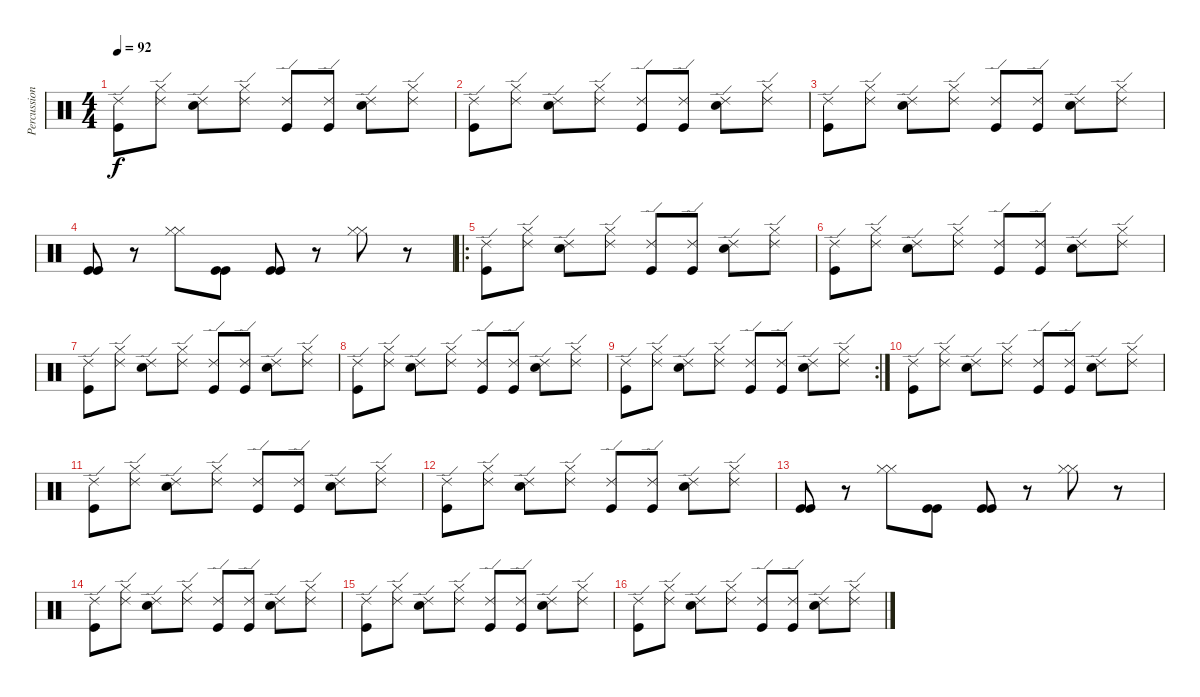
\track ("Percussion" "Percussion") {instrument percussion}
\staff {score}
\articulation defaults
\ts (4 4)
\tempo 92
\clef neutral
\ks c
("Kick (hit)" "Ride (edge) 2").8{dy f} ("Hi-Hat (closed)" "Ride (edge) 2").8 ("Snare (hit) 2" "Ride (edge) 2").8 ("Hi-Hat (closed)" "Ride (edge) 2").8 ("Kick (hit)" "Ride (edge) 2").8 ("Kick (hit)" "Ride (edge) 2").8 ("Snare (hit) 2" "Ride (edge) 2").8 ("Hi-Hat (closed)" "Ride (edge) 2").8 |
("Kick (hit)" "Ride (edge) 2").8 ("Hi-Hat (closed)" "Ride (edge) 2").8 ("Snare (hit) 2" "Ride (edge) 2").8 ("Hi-Hat (closed)" "Ride (edge) 2").8 ("Kick (hit)" "Ride (edge) 2").8 ("Kick (hit)" "Ride (edge) 2").8 ("Snare (hit) 2" "Ride (edge) 2").8 ("Hi-Hat (closed)" "Ride (edge) 2").8 |
("Kick (hit)" "Ride (edge) 2").8 ("Hi-Hat (closed)" "Ride (edge) 2").8 ("Snare (hit) 2" "Ride (edge) 2").8 ("Hi-Hat (closed)" "Ride (edge) 2").8 ("Kick (hit)" "Ride (edge) 2").8 ("Kick (hit)" "Ride (edge) 2").8 ("Snare (hit) 2" "Ride (edge) 2").8 ("Hi-Hat (closed)" "Ride (edge) 2").8 |
("Kick (hit)" "Kick (hit)").8 r.8 ("Hi-Hat (closed)" "Hi-Hat (closed)").8 ("Kick (hit)" "Kick (hit)").8 ("Kick (hit)" "Kick (hit)").8 r.8 ("Hi-Hat (closed)" "Hi-Hat (closed)").8 r.8 |
\ro
("Kick (hit)" "Ride (edge) 2").8 ("Hi-Hat (closed)" "Ride (edge) 2").8 ("Snare (hit) 2" "Ride (edge) 2").8 ("Hi-Hat (closed)" "Ride (edge) 2").8 ("Kick (hit)" "Ride (edge) 2").8 ("Kick (hit)" "Ride (edge) 2").8 ("Snare (hit) 2" "Ride (edge) 2").8 ("Hi-Hat (closed)" "Ride (edge) 2").8 |
("Kick (hit)" "Ride (edge) 2").8 ("Hi-Hat (closed)" "Ride (edge) 2").8 ("Snare (hit) 2" "Ride (edge) 2").8 ("Hi-Hat (closed)" "Ride (edge) 2").8 ("Kick (hit)" "Ride (edge) 2").8 ("Kick (hit)" "Ride (edge) 2").8 ("Snare (hit) 2" "Ride (edge) 2").8 ("Hi-Hat (closed)" "Ride (edge) 2").8 |
("Kick (hit)" "Ride (edge) 2").8 ("Hi-Hat (closed)" "Ride (edge) 2").8 ("Snare (hit) 2" "Ride (edge) 2").8 ("Hi-Hat (closed)" "Ride (edge) 2").8 ("Kick (hit)" "Ride (edge) 2").8 ("Kick (hit)" "Ride (edge) 2").8 ("Snare (hit) 2" "Ride (edge) 2").8 ("Hi-Hat (closed)" "Ride (edge) 2").8 |
("Kick (hit)" "Ride (edge) 2").8 ("Hi-Hat (closed)" "Ride (edge) 2").8 ("Snare (hit) 2" "Ride (edge) 2").8 ("Hi-Hat (closed)" "Ride (edge) 2").8 ("Kick (hit)" "Ride (edge) 2").8 ("Kick (hit)" "Ride (edge) 2").8 ("Snare (hit) 2" "Ride (edge) 2").8 ("Hi-Hat (closed)" "Ride (edge) 2").8 |
\rc 2
("Kick (hit)" "Ride (edge) 2").8 ("Hi-Hat (closed)" "Ride (edge) 2").8 ("Snare (hit) 2" "Ride (edge) 2").8 ("Hi-Hat (closed)" "Ride (edge) 2").8 ("Kick (hit)" "Ride (edge) 2").8 ("Kick (hit)" "Ride (edge) 2").8 ("Snare (hit) 2" "Ride (edge) 2").8 ("Hi-Hat (closed)" "Ride (edge) 2").8 |
("Kick (hit)" "Ride (edge) 2").8 ("Hi-Hat (closed)" "Ride (edge) 2").8 ("Snare (hit) 2" "Ride (edge) 2").8 ("Hi-Hat (closed)" "Ride (edge) 2").8 ("Kick (hit)" "Ride (edge) 2").8 ("Kick (hit)" "Ride (edge) 2").8 ("Snare (hit) 2" "Ride (edge) 2").8 ("Hi-Hat (closed)" "Ride (edge) 2").8 |
("Kick (hit)" "Ride (edge) 2").8 ("Hi-Hat (closed)" "Ride (edge) 2").8 ("Snare (hit) 2" "Ride (edge) 2").8 ("Hi-Hat (closed)" "Ride (edge) 2").8 ("Kick (hit)" "Ride (edge) 2").8 ("Kick (hit)" "Ride (edge) 2").8 ("Snare (hit) 2" "Ride (edge) 2").8 ("Hi-Hat (closed)" "Ride (edge) 2").8 |
("Kick (hit)" "Ride (edge) 2").8 ("Hi-Hat (closed)" "Ride (edge) 2").8 ("Snare (hit) 2" "Ride (edge) 2").8 ("Hi-Hat (closed)" "Ride (edge) 2").8 ("Kick (hit)" "Ride (edge) 2").8 ("Kick (hit)" "Ride (edge) 2").8 ("Snare (hit) 2" "Ride (edge) 2").8 ("Hi-Hat (closed)" "Ride (edge) 2").8 |
("Kick (hit)" "Kick (hit)").8 r.8 ("Hi-Hat (closed)" "Hi-Hat (closed)").8 ("Kick (hit)" "Kick (hit)").8 ("Kick (hit)" "Kick (hit)").8 r.8 ("Hi-Hat (closed)" "Hi-Hat (closed)").8 r.8 |
("Kick (hit)" "Ride (edge) 2").8 ("Hi-Hat (closed)" "Ride (edge) 2").8 ("Snare (hit) 2" "Ride (edge) 2").8 ("Hi-Hat (closed)" "Ride (edge) 2").8 ("Kick (hit)" "Ride (edge) 2").8 ("Kick (hit)" "Ride (edge) 2").8 ("Snare (hit) 2" "Ride (edge) 2").8 ("Hi-Hat (closed)" "Ride (edge) 2").8 |
("Kick (hit)" "Ride (edge) 2").8 ("Hi-Hat (closed)" "Ride (edge) 2").8 ("Snare (hit) 2" "Ride (edge) 2").8 ("Hi-Hat (closed)" "Ride (edge) 2").8 ("Kick (hit)" "Ride (edge) 2").8 ("Kick (hit)" "Ride (edge) 2").8 ("Snare (hit) 2" "Ride (edge) 2").8 ("Hi-Hat (closed)" "Ride (edge) 2").8 |
("Kick (hit)" "Ride (edge) 2").8 ("Hi-Hat (closed)" "Ride (edge) 2").8 ("Snare (hit) 2" "Ride (edge) 2").8 ("Hi-Hat (closed)" "Ride (edge) 2").8 ("Kick (hit)" "Ride (edge) 2").8 ("Kick (hit)" "Ride (edge) 2").8 ("Snare (hit) 2" "Ride (edge) 2").8 ("Hi-Hat (closed)" "Ride (edge) 2").8
